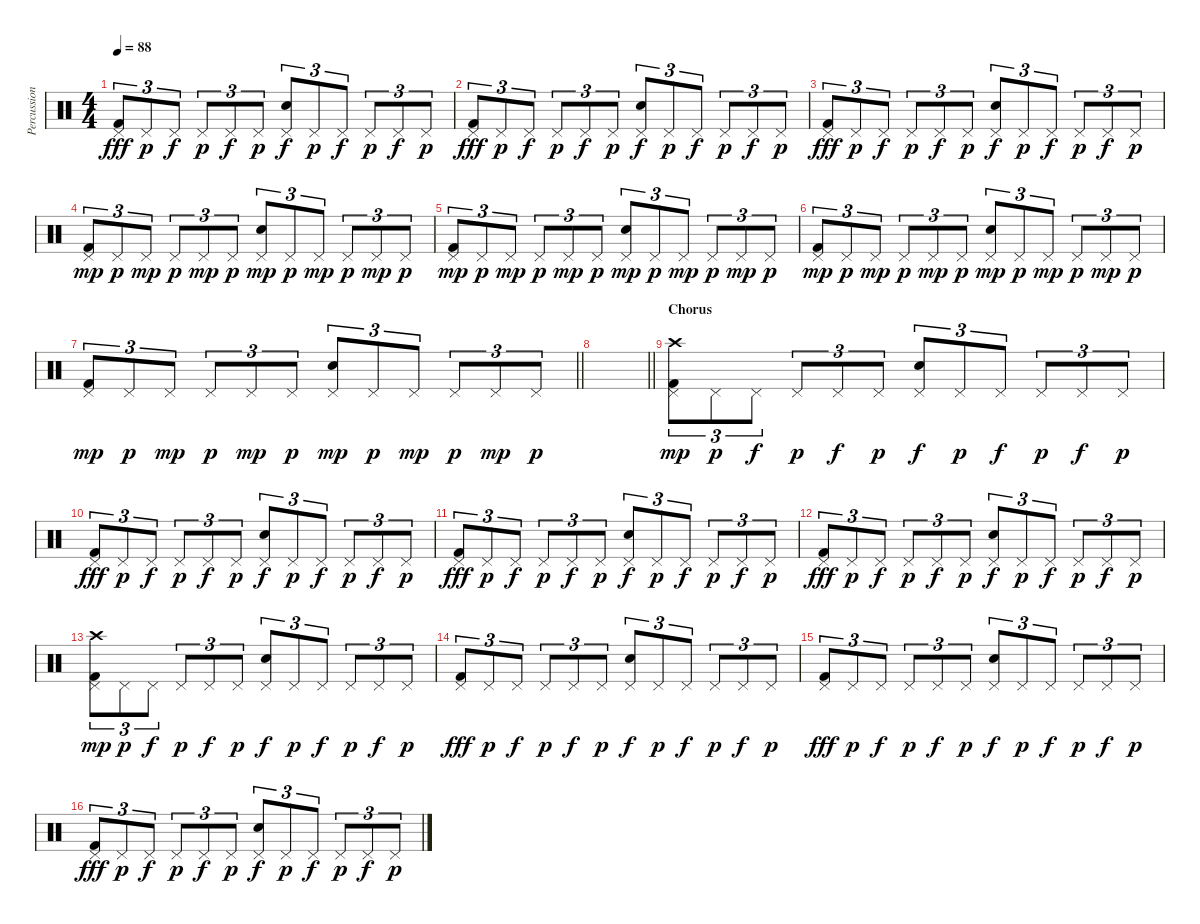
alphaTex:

\track ("Percussion" "Percussion") {instrument percussion}
\staff {score}
\articulation defaults
\ts (4 4)
\tempo 88
\clef neutral
\ks c
("Kick (hit) 2" "Pedal Hi-Hat (hit)").8{tu (3 2) dy fff} "Pedal Hi-Hat (hit)".8{tu (3 2) dy p} "Pedal Hi-Hat (hit)".8{tu (3 2) dy f} "Pedal Hi-Hat (hit)".8{tu (3 2) dy p} "Pedal Hi-Hat (hit)".8{tu (3 2) dy f} "Pedal Hi-Hat (hit)".8{tu (3 2) dy p} ("Electric Snare (hit)" "Pedal Hi-Hat (hit)").8{tu (3 2) dy f} "Pedal Hi-Hat (hit)".8{tu (3 2) dy p} "Pedal Hi-Hat (hit)".8{tu (3 2) dy f} "Pedal Hi-Hat (hit)".8{tu (3 2) dy p} "Pedal Hi-Hat (hit)".8{tu (3 2) dy f} "Pedal Hi-Hat (hit)".8{tu (3 2) dy p} |
("Kick (hit) 2" "Pedal Hi-Hat (hit)").8{tu (3 2) dy fff} "Pedal Hi-Hat (hit)".8{tu (3 2) dy p} "Pedal Hi-Hat (hit)".8{tu (3 2) dy f} "Pedal Hi-Hat (hit)".8{tu (3 2) dy p} "Pedal Hi-Hat (hit)".8{tu (3 2) dy f} "Pedal Hi-Hat (hit)".8{tu (3 2) dy p} ("Electric Snare (hit)" "Pedal Hi-Hat (hit)").8{tu (3 2) dy f} "Pedal Hi-Hat (hit)".8{tu (3 2) dy p} "Pedal Hi-Hat (hit)".8{tu (3 2) dy f} "Pedal Hi-Hat (hit)".8{tu (3 2) dy p} "Pedal Hi-Hat (hit)".8{tu (3 2) dy f} "Pedal Hi-Hat (hit)".8{tu (3 2) dy p} |
("Kick (hit) 2" "Pedal Hi-Hat (hit)").8{tu (3 2) dy fff} "Pedal Hi-Hat (hit)".8{tu (3 2) dy p} "Pedal Hi-Hat (hit)".8{tu (3 2) dy f} "Pedal Hi-Hat (hit)".8{tu (3 2) dy p} "Pedal Hi-Hat (hit)".8{tu (3 2) dy f} "Pedal Hi-Hat (hit)".8{tu (3 2) dy p} ("Electric Snare (hit)" "Pedal Hi-Hat (hit)").8{tu (3 2) dy f} "Pedal Hi-Hat (hit)".8{tu (3 2) dy p} "Pedal Hi-Hat (hit)".8{tu (3 2) dy f} "Pedal Hi-Hat (hit)".8{tu (3 2) dy p} "Pedal Hi-Hat (hit)".8{tu (3 2) dy f} "Pedal Hi-Hat (hit)".8{tu (3 2) dy p} |
("Kick (hit) 2" "Pedal Hi-Hat (hit)").8{tu (3 2) dy mp} "Pedal Hi-Hat (hit)".8{tu (3 2) dy p} "Pedal Hi-Hat (hit)".8{tu (3 2) dy mp} "Pedal Hi-Hat (hit)".8{tu (3 2) dy p} "Pedal Hi-Hat (hit)".8{tu (3 2) dy mp} "Pedal Hi-Hat (hit)".8{tu (3 2) dy p} ("Electric Snare (hit)" "Pedal Hi-Hat (hit)").8{tu (3 2) dy mp} "Pedal Hi-Hat (hit)".8{tu (3 2) dy p} "Pedal Hi-Hat (hit)".8{tu (3 2) dy mp} "Pedal Hi-Hat (hit)".8{tu (3 2) dy p} "Pedal Hi-Hat (hit)".8{tu (3 2) dy mp} "Pedal Hi-Hat (hit)".8{tu (3 2) dy p} |
("Kick (hit) 2" "Pedal Hi-Hat (hit)").8{tu (3 2) dy mp} "Pedal Hi-Hat (hit)".8{tu (3 2) dy p} "Pedal Hi-Hat (hit)".8{tu (3 2) dy mp} "Pedal Hi-Hat (hit)".8{tu (3 2) dy p} "Pedal Hi-Hat (hit)".8{tu (3 2) dy mp} "Pedal Hi-Hat (hit)".8{tu (3 2) dy p} ("Electric Snare (hit)" "Pedal Hi-Hat (hit)").8{tu (3 2) dy mp} "Pedal Hi-Hat (hit)".8{tu (3 2) dy p} "Pedal Hi-Hat (hit)".8{tu (3 2) dy mp} "Pedal Hi-Hat (hit)".8{tu (3 2) dy p} "Pedal Hi-Hat (hit)".8{tu (3 2) dy mp} "Pedal Hi-Hat (hit)".8{tu (3 2) dy p} |
("Kick (hit) 2" "Pedal Hi-Hat (hit)").8{tu (3 2) dy mp} "Pedal Hi-Hat (hit)".8{tu (3 2) dy p} "Pedal Hi-Hat (hit)".8{tu (3 2) dy mp} "Pedal Hi-Hat (hit)".8{tu (3 2) dy p} "Pedal Hi-Hat (hit)".8{tu (3 2) dy mp} "Pedal Hi-Hat (hit)".8{tu (3 2) dy p} ("Electric Snare (hit)" "Pedal Hi-Hat (hit)").8{tu (3 2) dy mp} "Pedal Hi-Hat (hit)".8{tu (3 2) dy p} "Pedal Hi-Hat (hit)".8{tu (3 2) dy mp} "Pedal Hi-Hat (hit)".8{tu (3 2) dy p} "Pedal Hi-Hat (hit)".8{tu (3 2) dy mp} "Pedal Hi-Hat (hit)".8{tu (3 2) dy p} |
\barLineRight lightlight
("Kick (hit) 2" "Pedal Hi-Hat (hit)").8{tu (3 2) dy mp} "Pedal Hi-Hat (hit)".8{tu (3 2) dy p} "Pedal Hi-Hat (hit)".8{tu (3 2) dy mp} "Pedal Hi-Hat (hit)".8{tu (3 2) dy p} "Pedal Hi-Hat (hit)".8{tu (3 2) dy mp} "Pedal Hi-Hat (hit)".8{tu (3 2) dy p} ("Electric Snare (hit)" "Pedal Hi-Hat (hit)").8{tu (3 2) dy mp} "Pedal Hi-Hat (hit)".8{tu (3 2) dy p} "Pedal Hi-Hat (hit)".8{tu (3 2) dy mp} "Pedal Hi-Hat (hit)".8{tu (3 2) dy p} "Pedal Hi-Hat (hit)".8{tu (3 2) dy mp} "Pedal Hi-Hat (hit)".8{tu (3 2) dy p} |
\barLineRight lightlight
|
\section ("" "Chorus")
("Kick (hit) 2" "Pedal Hi-Hat (hit)" "Crash high (hit)").8{tu (3 2) dy mp} "Pedal Hi-Hat (hit)".8{tu (3 2) dy p} "Pedal Hi-Hat (hit)".8{tu (3 2) dy f} "Pedal Hi-Hat (hit)".8{tu (3 2) dy p} "Pedal Hi-Hat (hit)".8{tu (3 2) dy f} "Pedal Hi-Hat (hit)".8{tu (3 2) dy p} ("Electric Snare (hit)" "Pedal Hi-Hat (hit)").8{tu (3 2) dy f} "Pedal Hi-Hat (hit)".8{tu (3 2) dy p} "Pedal Hi-Hat (hit)".8{tu (3 2) dy f} "Pedal Hi-Hat (hit)".8{tu (3 2) dy p} "Pedal Hi-Hat (hit)".8{tu (3 2) dy f} "Pedal Hi-Hat (hit)".8{tu (3 2) dy p} |
("Kick (hit) 2" "Pedal Hi-Hat (hit)").8{tu (3 2) dy fff} "Pedal Hi-Hat (hit)".8{tu (3 2) dy p} "Pedal Hi-Hat (hit)".8{tu (3 2) dy f} "Pedal Hi-Hat (hit)".8{tu (3 2) dy p} "Pedal Hi-Hat (hit)".8{tu (3 2) dy f} "Pedal Hi-Hat (hit)".8{tu (3 2) dy p} ("Electric Snare (hit)" "Pedal Hi-Hat (hit)").8{tu (3 2) dy f} "Pedal Hi-Hat (hit)".8{tu (3 2) dy p} "Pedal Hi-Hat (hit)".8{tu (3 2) dy f} "Pedal Hi-Hat (hit)".8{tu (3 2) dy p} "Pedal Hi-Hat (hit)".8{tu (3 2) dy f} "Pedal Hi-Hat (hit)".8{tu (3 2) dy p} |
("Kick (hit) 2" "Pedal Hi-Hat (hit)").8{tu (3 2) dy fff} "Pedal Hi-Hat (hit)".8{tu (3 2) dy p} "Pedal Hi-Hat (hit)".8{tu (3 2) dy f} "Pedal Hi-Hat (hit)".8{tu (3 2) dy p} "Pedal Hi-Hat (hit)".8{tu (3 2) dy f} "Pedal Hi-Hat (hit)".8{tu (3 2) dy p} ("Electric Snare (hit)" "Pedal Hi-Hat (hit)").8{tu (3 2) dy f} "Pedal Hi-Hat (hit)".8{tu (3 2) dy p} "Pedal Hi-Hat (hit)".8{tu (3 2) dy f} "Pedal Hi-Hat (hit)".8{tu (3 2) dy p} "Pedal Hi-Hat (hit)".8{tu (3 2) dy f} "Pedal Hi-Hat (hit)".8{tu (3 2) dy p} |
("Kick (hit) 2" "Pedal Hi-Hat (hit)").8{tu (3 2) dy fff} "Pedal Hi-Hat (hit)".8{tu (3 2) dy p} "Pedal Hi-Hat (hit)".8{tu (3 2) dy f} "Pedal Hi-Hat (hit)".8{tu (3 2) dy p} "Pedal Hi-Hat (hit)".8{tu (3 2) dy f} "Pedal Hi-Hat (hit)".8{tu (3 2) dy p} ("Electric Snare (hit)" "Pedal Hi-Hat (hit)").8{tu (3 2) dy f} "Pedal Hi-Hat (hit)".8{tu (3 2) dy p} "Pedal Hi-Hat (hit)".8{tu (3 2) dy f} "Pedal Hi-Hat (hit)".8{tu (3 2) dy p} "Pedal Hi-Hat (hit)".8{tu (3 2) dy f} "Pedal Hi-Hat (hit)".8{tu (3 2) dy p} |
("Kick (hit) 2" "Pedal Hi-Hat (hit)" "Crash high (hit)").8{tu (3 2) dy mp} "Pedal Hi-Hat (hit)".8{tu (3 2) dy p} "Pedal Hi-Hat (hit)".8{tu (3 2) dy f} "Pedal Hi-Hat (hit)".8{tu (3 2) dy p} "Pedal Hi-Hat (hit)".8{tu (3 2) dy f} "Pedal Hi-Hat (hit)".8{tu (3 2) dy p} ("Electric Snare (hit)" "Pedal Hi-Hat (hit)").8{tu (3 2) dy f} "Pedal Hi-Hat (hit)".8{tu (3 2) dy p} "Pedal Hi-Hat (hit)".8{tu (3 2) dy f} "Pedal Hi-Hat (hit)".8{tu (3 2) dy p} "Pedal Hi-Hat (hit)".8{tu (3 2) dy f} "Pedal Hi-Hat (hit)".8{tu (3 2) dy p} |
("Kick (hit) 2" "Pedal Hi-Hat (hit)").8{tu (3 2) dy fff} "Pedal Hi-Hat (hit)".8{tu (3 2) dy p} "Pedal Hi-Hat (hit)".8{tu (3 2) dy f} "Pedal Hi-Hat (hit)".8{tu (3 2) dy p} "Pedal Hi-Hat (hit)".8{tu (3 2) dy f} "Pedal Hi-Hat (hit)".8{tu (3 2) dy p} ("Electric Snare (hit)" "Pedal Hi-Hat (hit)").8{tu (3 2) dy f} "Pedal Hi-Hat (hit)".8{tu (3 2) dy p} "Pedal Hi-Hat (hit)".8{tu (3 2) dy f} "Pedal Hi-Hat (hit)".8{tu (3 2) dy p} "Pedal Hi-Hat (hit)".8{tu (3 2) dy f} "Pedal Hi-Hat (hit)".8{tu (3 2) dy p} |
("Kick (hit) 2" "Pedal Hi-Hat (hit)").8{tu (3 2) dy fff} "Pedal Hi-Hat (hit)".8{tu (3 2) dy p} "Pedal Hi-Hat (hit)".8{tu (3 2) dy f} "Pedal Hi-Hat (hit)".8{tu (3 2) dy p} "Pedal Hi-Hat (hit)".8{tu (3 2) dy f} "Pedal Hi-Hat (hit)".8{tu (3 2) dy p} ("Electric Snare (hit)" "Pedal Hi-Hat (hit)").8{tu (3 2) dy f} "Pedal Hi-Hat (hit)".8{tu (3 2) dy p} "Pedal Hi-Hat (hit)".8{tu (3 2) dy f} "Pedal Hi-Hat (hit)".8{tu (3 2) dy p} "Pedal Hi-Hat (hit)".8{tu (3 2) dy f} "Pedal Hi-Hat (hit)".8{tu (3 2) dy p} |
("Kick (hit) 2" "Pedal Hi-Hat (hit)").8{tu (3 2) dy fff} "Pedal Hi-Hat (hit)".8{tu (3 2) dy p} "Pedal Hi-Hat (hit)".8{tu (3 2) dy f} "Pedal Hi-Hat (hit)".8{tu (3 2) dy p} "Pedal Hi-Hat (hit)".8{tu (3 2) dy f} "Pedal Hi-Hat (hit)".8{tu (3 2) dy p} ("Electric Snare (hit)" "Pedal Hi-Hat (hit)").8{tu (3 2) dy f} "Pedal Hi-Hat (hit)".8{tu (3 2) dy p} "Pedal Hi-Hat (hit)".8{tu (3 2) dy f} "Pedal Hi-Hat (hit)".8{tu (3 2) dy p} "Pedal Hi-Hat (hit)".8{tu (3 2) dy f} "Pedal Hi-Hat (hit)".8{tu (3 2) dy p}
